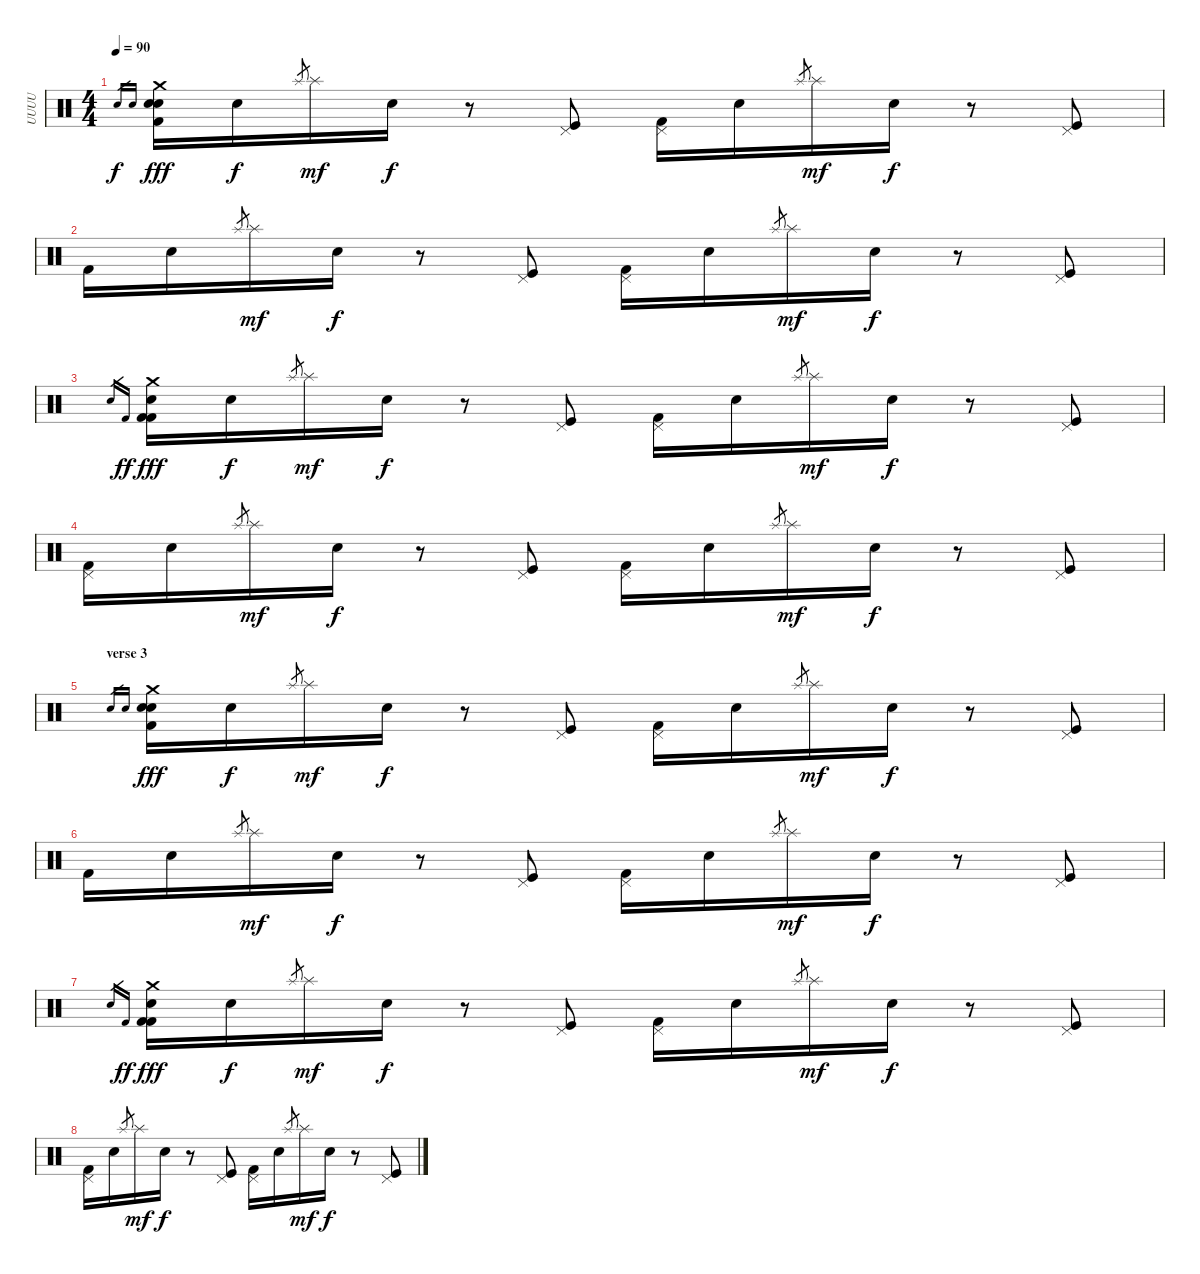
\track ("UUUU" "UUUU") {instrument percussion}
\staff {score}
\articulation defaults
\ts (4 4)
\tempo 90
\clef neutral
\ks c "Electric Snare (hit)".16{gr dy f} "Snare (hit) 2".16{gr}
("Crash medium (hit)" "Kick (hit) 2" "Electric Snare (hit)" "Snare (hit) 2").16{dy fff} "Snare (hit) 2".16{dy f} "Splash (hit)".8{gr} "Splash (hit)".16{dy mf} "Electric Snare (hit)".16{dy f} r.8 ("Pedal Hi-Hat (hit)" "Kick (hit)").8 ("Pedal Hi-Hat (hit)" "Kick (hit) 2").16 "Snare (hit) 2".16 "Splash (hit)"{h}.8{gr} "Splash (hit)".16{dy mf} "Electric Snare (hit)".16{dy f} r.8 ("Pedal Hi-Hat (hit)" "Kick (hit)").8 |
"Kick (hit) 2".16 "Snare (hit) 2".16 "Splash (hit)".8{gr} "Splash (hit)".16{dy mf} "Electric Snare (hit)".16{dy f} r.8 ("Pedal Hi-Hat (hit)" "Kick (hit)").8 ("Pedal Hi-Hat (hit)" "Kick (hit) 2").16 "Snare (hit) 2".16 "Splash (hit)".8{gr} "Splash (hit)".16{dy mf} "Electric Snare (hit)".16{dy f} r.8 ("Pedal Hi-Hat (hit)" "Kick (hit)").8 |
"Electric Snare (hit)".16{gr} "Kick (hit) 2".16{gr dy ff} ("Crash medium (hit)" "Kick (hit) 2" "Electric Snare (hit)" "Kick (hit) 2").16{dy fff} "Snare (hit) 2".16{dy f} "Splash (hit)".8{gr} "Splash (hit)".16{dy mf} "Electric Snare (hit)".16{dy f} r.8 ("Pedal Hi-Hat (hit)" "Kick (hit)").8 ("Pedal Hi-Hat (hit)" "Kick (hit) 2").16 "Snare (hit) 2".16 "Splash (hit)".8{gr} "Splash (hit)".16{dy mf} "Electric Snare (hit)".16{dy f} r.8 ("Pedal Hi-Hat (hit)" "Kick (hit)").8 |
("Pedal Hi-Hat (hit)" "Kick (hit) 2").16 "Snare (hit) 2".16 "Splash (hit)".8{gr} "Splash (hit)".16{dy mf} "Electric Snare (hit)".16{dy f} r.8 ("Pedal Hi-Hat (hit)" "Kick (hit)").8 ("Pedal Hi-Hat (hit)" "Kick (hit) 2").16 "Snare (hit) 2".16 "Splash (hit)"{h}.8{gr} "Splash (hit)".16{dy mf} "Electric Snare (hit)".16{dy f} r.8 ("Pedal Hi-Hat (hit)" "Kick (hit)").8 |
\section ("" "verse 3")
"Electric Snare (hit)".16{gr} "Snare (hit) 2".16{gr} ("Crash medium (hit)" "Kick (hit) 2" "Electric Snare (hit)" "Snare (hit) 2").16{dy fff} "Snare (hit) 2".16{dy f} "Splash (hit)".8{gr} "Splash (hit)".16{dy mf} "Electric Snare (hit)".16{dy f} r.8 ("Pedal Hi-Hat (hit)" "Kick (hit)").8 ("Pedal Hi-Hat (hit)" "Kick (hit) 2").16 "Snare (hit) 2".16 "Splash (hit)"{h}.8{gr} "Splash (hit)".16{dy mf} "Electric Snare (hit)".16{dy f} r.8 ("Pedal Hi-Hat (hit)" "Kick (hit)").8 |
"Kick (hit) 2".16 "Snare (hit) 2".16 "Splash (hit)".8{gr} "Splash (hit)".16{dy mf} "Electric Snare (hit)".16{dy f} r.8 ("Pedal Hi-Hat (hit)" "Kick (hit)").8 ("Pedal Hi-Hat (hit)" "Kick (hit) 2").16 "Snare (hit) 2".16 "Splash (hit)".8{gr} "Splash (hit)".16{dy mf} "Electric Snare (hit)".16{dy f} r.8 ("Pedal Hi-Hat (hit)" "Kick (hit)").8 |
"Electric Snare (hit)".16{gr} "Kick (hit) 2".16{gr dy ff} ("Crash medium (hit)" "Kick (hit) 2" "Electric Snare (hit)" "Kick (hit) 2").16{dy fff} "Snare (hit) 2".16{dy f} "Splash (hit)".8{gr} "Splash (hit)".16{dy mf} "Electric Snare (hit)".16{dy f} r.8 ("Pedal Hi-Hat (hit)" "Kick (hit)").8 ("Pedal Hi-Hat (hit)" "Kick (hit) 2").16 "Snare (hit) 2".16 "Splash (hit)".8{gr} "Splash (hit)".16{dy mf} "Electric Snare (hit)".16{dy f} r.8 ("Pedal Hi-Hat (hit)" "Kick (hit)").8 |
("Pedal Hi-Hat (hit)" "Kick (hit) 2").16 "Snare (hit) 2".16 "Splash (hit)".8{gr} "Splash (hit)".16{dy mf} "Electric Snare (hit)".16{dy f} r.8 ("Pedal Hi-Hat (hit)" "Kick (hit)").8 ("Pedal Hi-Hat (hit)" "Kick (hit) 2").16 "Snare (hit) 2".16 "Splash (hit)"{h}.8{gr} "Splash (hit)".16{dy mf} "Electric Snare (hit)".16{dy f} r.8 ("Pedal Hi-Hat (hit)" "Kick (hit)").8
